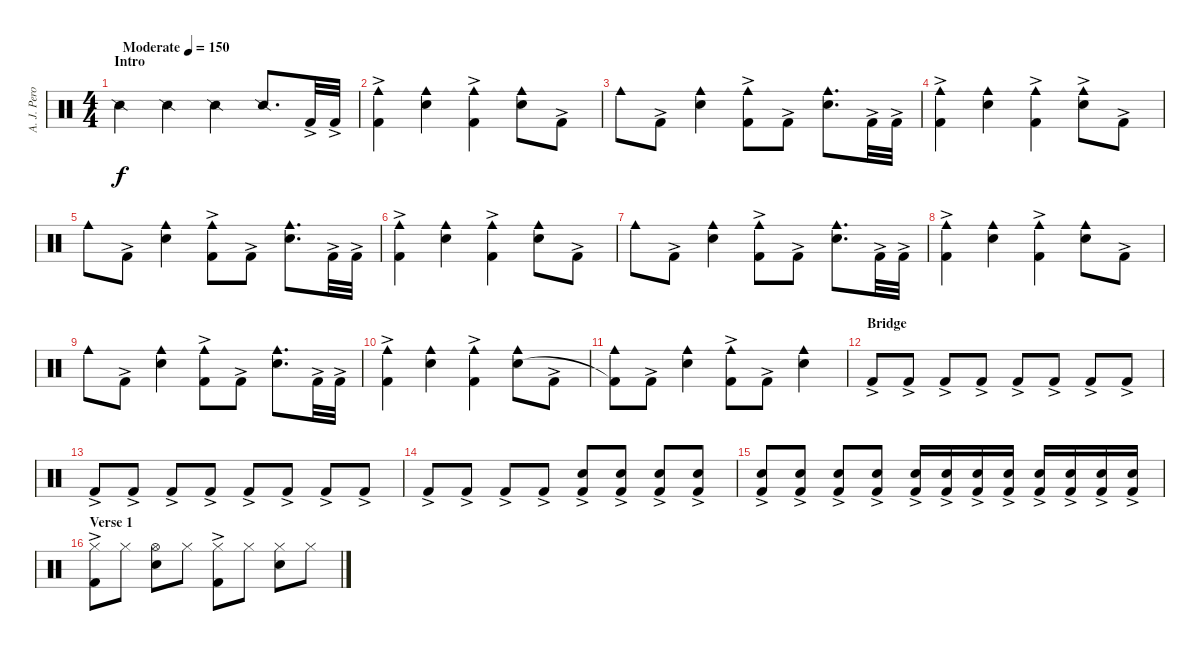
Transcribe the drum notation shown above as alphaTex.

\track ("A. J. Pero - Drums" "A. J. Pero") {instrument percussion}
\staff {score}
\articulation defaults
\ts (4 4)
\section ("" "Intro")
\tempo (150 "Moderate")
\clef neutral
\ks c "Snare (side stick) 2".4{dy f} "Snare (side stick) 2".4 "Snare (side stick) 2".4 "Snare (side stick) 2".8{d} "Kick (hit) 2"{ac}.32 "Kick (hit) 2"{ac}.32
|
("Cowbell medium (hit)" "Kick (hit) 2"{ac}).4 ("Cowbell medium (hit)" "Electric Snare (hit)").4 ("Cowbell medium (hit)" "Kick (hit) 2"{ac}).4 ("Cowbell medium (hit)" "Electric Snare (hit)").8 "Kick (hit) 2"{ac}.8 |
"Cowbell medium (hit)".8 "Kick (hit) 2"{ac}.8 ("Cowbell medium (hit)" "Electric Snare (hit)").4 ("Cowbell medium (hit)" "Kick (hit) 2"{ac}).8 "Kick (hit) 2"{ac}.8 ("Cowbell medium (hit)" "Electric Snare (hit)").8{d} "Kick (hit) 2"{ac}.32 "Kick (hit) 2"{ac}.32 |
("Cowbell medium (hit)" "Kick (hit) 2"{ac}).4 ("Cowbell medium (hit)" "Electric Snare (hit)").4 ("Cowbell medium (hit)" "Kick (hit) 2"{ac}).4 ("Cowbell medium (hit)" "Electric Snare (hit)"{ac}).8 "Kick (hit) 2"{ac}.8 |
"Cowbell medium (hit)".8 "Kick (hit) 2"{ac}.8 ("Cowbell medium (hit)" "Electric Snare (hit)").4 ("Cowbell medium (hit)" "Kick (hit) 2"{ac}).8 "Kick (hit) 2"{ac}.8 ("Cowbell medium (hit)" "Electric Snare (hit)").8{d} "Kick (hit) 2"{ac}.32 "Kick (hit) 2"{ac}.32 |
("Cowbell medium (hit)" "Kick (hit) 2"{ac}).4 ("Cowbell medium (hit)" "Electric Snare (hit)").4 ("Cowbell medium (hit)" "Kick (hit) 2"{ac}).4 ("Cowbell medium (hit)" "Electric Snare (hit)").8 "Kick (hit) 2"{ac}.8 |
"Cowbell medium (hit)".8 "Kick (hit) 2"{ac}.8 ("Cowbell medium (hit)" "Electric Snare (hit)").4 ("Cowbell medium (hit)" "Kick (hit) 2"{ac}).8 "Kick (hit) 2"{ac}.8 ("Cowbell medium (hit)" "Electric Snare (hit)").8{d} "Kick (hit) 2"{ac}.32 "Kick (hit) 2"{ac}.32 |
("Cowbell medium (hit)" "Kick (hit) 2"{ac}).4 ("Cowbell medium (hit)" "Electric Snare (hit)").4 ("Cowbell medium (hit)" "Kick (hit) 2"{ac}).4 ("Cowbell medium (hit)" "Electric Snare (hit)").8 "Kick (hit) 2"{ac}.8 |
"Cowbell medium (hit)".8 "Kick (hit) 2"{ac}.8 ("Cowbell medium (hit)" "Electric Snare (hit)").4 ("Cowbell medium (hit)" "Kick (hit) 2"{ac}).8 "Kick (hit) 2"{ac}.8 ("Cowbell medium (hit)" "Electric Snare (hit)").8{d} "Kick (hit) 2"{ac}.32 "Kick (hit) 2"{ac}.32 |
("Cowbell medium (hit)" "Kick (hit) 2"{ac}).4 ("Cowbell medium (hit)" "Electric Snare (hit)").4 ("Cowbell medium (hit)" "Kick (hit) 2"{ac}).4 ("Cowbell medium (hit)" "Electric Snare (hit)").8 "Kick (hit) 2"{ac}.8 |
("Cowbell medium (hit)" "Kick (hit) 2"{t}).8 "Kick (hit) 2"{ac}.8 ("Cowbell medium (hit)" "Electric Snare (hit)").4 ("Cowbell medium (hit)" "Kick (hit) 2"{ac}).8 "Kick (hit) 2"{ac}.8 ("Cowbell medium (hit)" "Electric Snare (hit)").4 |
\section ("" "Bridge")
"Kick (hit) 2"{ac}.8 "Kick (hit) 2"{ac}.8 "Kick (hit) 2"{ac}.8 "Kick (hit) 2"{ac}.8 "Kick (hit) 2"{ac}.8 "Kick (hit) 2"{ac}.8 "Kick (hit) 2"{ac}.8 "Kick (hit) 2"{ac}.8 |
"Kick (hit) 2"{ac}.8 "Kick (hit) 2"{ac}.8 "Kick (hit) 2"{ac}.8 "Kick (hit) 2"{ac}.8 "Kick (hit) 2"{ac}.8 "Kick (hit) 2"{ac}.8 "Kick (hit) 2"{ac}.8 "Kick (hit) 2"{ac}.8 |
"Kick (hit) 2"{ac}.8 "Kick (hit) 2"{ac}.8 "Kick (hit) 2"{ac}.8 "Kick (hit) 2"{ac}.8 ("Electric Snare (hit)" "Kick (hit) 2"{ac}).8 ("Electric Snare (hit)" "Kick (hit) 2"{ac}).8 ("Electric Snare (hit)" "Kick (hit) 2"{ac}).8 ("Electric Snare (hit)" "Kick (hit) 2"{ac}).8 |
("Electric Snare (hit)" "Kick (hit) 2"{ac}).8 ("Electric Snare (hit)" "Kick (hit) 2"{ac}).8 ("Electric Snare (hit)" "Kick (hit) 2"{ac}).8 ("Electric Snare (hit)" "Kick (hit) 2"{ac}).8 ("Electric Snare (hit)" "Kick (hit) 2"{ac}).16 ("Electric Snare (hit)" "Kick (hit) 2"{ac}).16 ("Electric Snare (hit)" "Kick (hit) 2"{ac}).16 ("Electric Snare (hit)" "Kick (hit) 2"{ac}).16 ("Electric Snare (hit)" "Kick (hit) 2"{ac}).16 ("Electric Snare (hit)" "Kick (hit) 2"{ac}).16 ("Electric Snare (hit)" "Kick (hit) 2"{ac}).16 ("Electric Snare (hit)" "Kick (hit) 2"{ac}).16 |
\section ("" "Verse 1")
("Hi-Hat (closed)" "Kick (hit) 2"{ac}).8 "Hi-Hat (closed)".8 ("Hi-Hat (open)" "Electric Snare (hit)").8 "Hi-Hat (closed)".8 ("Hi-Hat (closed)" "Kick (hit) 2"{ac}).8 "Hi-Hat (closed)".8 ("Hi-Hat (closed)" "Electric Snare (hit)").8 "Hi-Hat (closed)".8
